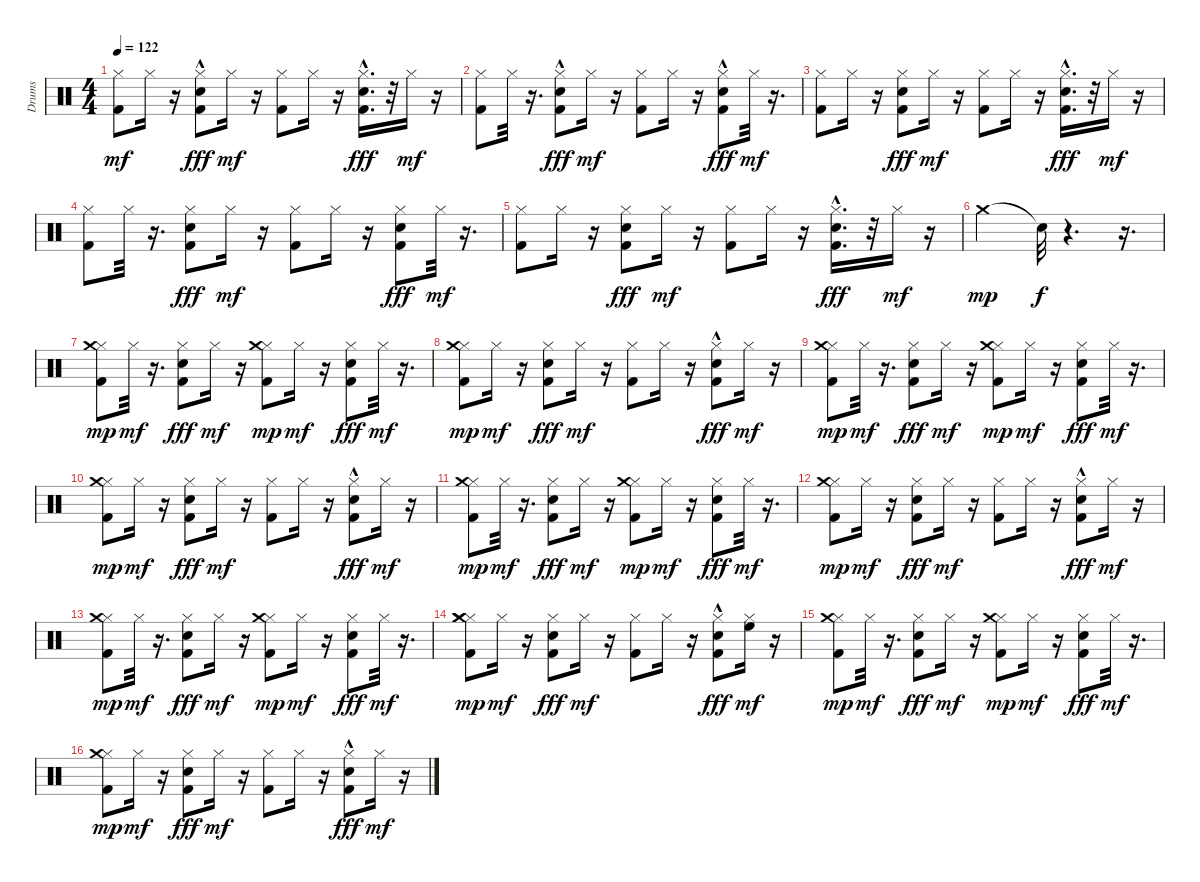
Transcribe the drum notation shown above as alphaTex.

\track ("Drums" "Drums") {instrument percussion}
\staff {score}
\articulation defaults
\ts (4 4)
\tempo 122
\clef neutral
\ks c
("Hi-Hat (closed)" "Kick (hit) 2").8{dy mf} "Hi-Hat (closed)".16 r.16 ("Hi-Hat (closed)" "Electric Snare (hit)"{hac} "Kick (hit) 2").8{dy fff} "Hi-Hat (closed)".16{dy mf} r.16 ("Hi-Hat (closed)" "Kick (hit) 2").8 "Hi-Hat (closed)".16 r.16 ("Hi-Hat (closed)" "Electric Snare (hit)"{hac} "Kick (hit) 2"{hac}).16{d dy fff} r.32 "Hi-Hat (closed)".16{dy mf} r.16 |
("Hi-Hat (closed)" "Kick (hit) 2").8 "Hi-Hat (closed)".32 r.16{d} ("Hi-Hat (closed)" "Electric Snare (hit)"{hac} "Kick (hit) 2").8{dy fff} "Hi-Hat (closed)".16{dy mf} r.16 ("Hi-Hat (closed)" "Kick (hit) 2").8 "Hi-Hat (closed)".16 r.16 ("Hi-Hat (closed)" "Electric Snare (hit)"{hac} "Kick (hit) 2").8{dy fff} "Hi-Hat (closed)".32{dy mf} r.16{d} |
("Hi-Hat (closed)" "Kick (hit) 2").8 "Hi-Hat (closed)".16 r.16 ("Hi-Hat (closed)" "Electric Snare (hit)" "Kick (hit) 2").8{dy fff} "Hi-Hat (closed)".16{dy mf} r.16 ("Hi-Hat (closed)" "Kick (hit) 2").8 "Hi-Hat (closed)".16 r.16 ("Hi-Hat (closed)" "Electric Snare (hit)" "Kick (hit) 2"{hac}).16{d dy fff} r.32 "Hi-Hat (closed)".16{dy mf} r.16 |
("Hi-Hat (closed)" "Kick (hit) 2").8 "Hi-Hat (closed)".32 r.16{d} ("Hi-Hat (closed)" "Electric Snare (hit)" "Kick (hit) 2").8{dy fff} "Hi-Hat (closed)".16{dy mf} r.16 ("Hi-Hat (closed)" "Kick (hit) 2").8 "Hi-Hat (closed)".16 r.16 ("Hi-Hat (closed)" "Electric Snare (hit)" "Kick (hit) 2").8{dy fff} "Hi-Hat (closed)".32{dy mf} r.16{d} |
("Hi-Hat (closed)" "Kick (hit) 2").8 "Hi-Hat (closed)".16 r.16 ("Hi-Hat (closed)" "Electric Snare (hit)" "Kick (hit) 2").8{dy fff} "Hi-Hat (closed)".16{dy mf} r.16 ("Hi-Hat (closed)" "Kick (hit) 2").8 "Hi-Hat (closed)".16 r.16 ("Hi-Hat (closed)" "Electric Snare (hit)" "Kick (hit) 2"{hac}).16{d dy fff} r.32 "Hi-Hat (closed)".16{dy mf} r.16 |
"Crash medium (hit)".2{dy mp} "Snare (hit)"{t}.32{dy f} r.4{d} r.16{d} |
("Hi-Hat (closed)" "Crash medium (hit)" "Kick (hit) 2").8{dy mp} "Hi-Hat (closed)".32{dy mf} r.16{d} ("Hi-Hat (closed)" "Electric Snare (hit)" "Kick (hit) 2").8{dy fff} "Hi-Hat (closed)".16{dy mf} r.16 ("Hi-Hat (closed)" "Crash medium (hit)" "Kick (hit) 2").8{dy mp} "Hi-Hat (closed)".16{dy mf} r.16 ("Hi-Hat (closed)" "Electric Snare (hit)" "Kick (hit) 2").8{dy fff} "Hi-Hat (closed)".32{dy mf} r.16{d} |
("Hi-Hat (closed)" "Crash medium (hit)" "Kick (hit) 2").8{dy mp} "Hi-Hat (closed)".16{dy mf} r.16 ("Hi-Hat (closed)" "Electric Snare (hit)" "Kick (hit) 2").8{dy fff} "Hi-Hat (closed)".16{dy mf} r.16 ("Hi-Hat (closed)" "Kick (hit) 2").8 "Hi-Hat (closed)".16 r.16 ("Hi-Hat (closed)" "Electric Snare (hit)"{hac} "Kick (hit) 2"{hac}).8{dy fff} "Hi-Hat (closed)".16{dy mf} r.16 |
("Hi-Hat (closed)" "Crash medium (hit)" "Kick (hit) 2").8{dy mp} "Hi-Hat (closed)".32{dy mf} r.16{d} ("Hi-Hat (closed)" "Electric Snare (hit)" "Kick (hit) 2").8{dy fff} "Hi-Hat (closed)".16{dy mf} r.16 ("Hi-Hat (closed)" "Crash medium (hit)" "Kick (hit) 2").8{dy mp} "Hi-Hat (closed)".16{dy mf} r.16 ("Hi-Hat (closed)" "Electric Snare (hit)" "Kick (hit) 2").8{dy fff} "Hi-Hat (closed)".32{dy mf} r.16{d} |
("Hi-Hat (closed)" "Crash medium (hit)" "Kick (hit) 2").8{dy mp} "Hi-Hat (closed)".16{dy mf} r.16 ("Hi-Hat (closed)" "Electric Snare (hit)" "Kick (hit) 2").8{dy fff} "Hi-Hat (closed)".16{dy mf} r.16 ("Hi-Hat (closed)" "Kick (hit) 2").8 "Hi-Hat (closed)".16 r.16 ("Hi-Hat (closed)" "Electric Snare (hit)" "Kick (hit) 2"{hac}).8{dy fff} "Hi-Hat (closed)".16{dy mf} r.16 |
("Hi-Hat (closed)" "Crash medium (hit)" "Kick (hit) 2").8{dy mp} "Hi-Hat (closed)".32{dy mf} r.16{d} ("Hi-Hat (closed)" "Electric Snare (hit)" "Kick (hit) 2").8{dy fff} "Hi-Hat (closed)".16{dy mf} r.16 ("Hi-Hat (closed)" "Crash medium (hit)" "Kick (hit) 2").8{dy mp} "Hi-Hat (closed)".16{dy mf} r.16 ("Hi-Hat (closed)" "Electric Snare (hit)" "Kick (hit) 2").8{dy fff} "Hi-Hat (closed)".32{dy mf} r.16{d} |
("Hi-Hat (closed)" "Crash medium (hit)" "Kick (hit) 2").8{dy mp} "Hi-Hat (closed)".16{dy mf} r.16 ("Hi-Hat (closed)" "Electric Snare (hit)" "Kick (hit) 2").8{dy fff} "Hi-Hat (closed)".16{dy mf} r.16 ("Hi-Hat (closed)" "Kick (hit) 2").8 "Hi-Hat (closed)".16 r.16 ("Hi-Hat (closed)" "Electric Snare (hit)" "Kick (hit) 2"{hac}).8{dy fff} "Hi-Hat (closed)".16{dy mf} r.16 |
("Hi-Hat (closed)" "Crash medium (hit)" "Kick (hit) 2").8{dy mp} "Hi-Hat (closed)".32{dy mf} r.16{d} ("Hi-Hat (closed)" "Electric Snare (hit)" "Kick (hit) 2").8{dy fff} "Hi-Hat (closed)".16{dy mf} r.16 ("Hi-Hat (closed)" "Crash medium (hit)" "Kick (hit) 2").8{dy mp} "Hi-Hat (closed)".16{dy mf} r.16 ("Hi-Hat (closed)" "Electric Snare (hit)" "Kick (hit) 2").8{dy fff} "Hi-Hat (closed)".32{dy mf} r.16{d} |
("Hi-Hat (closed)" "Crash medium (hit)" "Crash medium (hit)" "Kick (hit) 2").8{dy mp} "Hi-Hat (closed)".16{dy mf} r.16 ("Hi-Hat (closed)" "Electric Snare (hit)" "Kick (hit) 2").8{dy fff} "Hi-Hat (closed)".16{dy mf} r.16 ("Hi-Hat (closed)" "Kick (hit) 2").8 "Hi-Hat (closed)".16 r.16 ("Hi-Hat (closed)" "Electric Snare (hit)" "Kick (hit) 2"{hac}).8{dy fff} ("High Floor Tom (hit)" "Hi-Hat (closed)").16{dy mf} r.16 |
("Hi-Hat (closed)" "Crash medium (hit)" "Kick (hit) 2").8{dy mp} "Hi-Hat (closed)".32{dy mf} r.16{d} ("Hi-Hat (closed)" "Electric Snare (hit)" "Kick (hit) 2").8{dy fff} "Hi-Hat (closed)".16{dy mf} r.16 ("Hi-Hat (closed)" "Crash medium (hit)" "Kick (hit) 2").8{dy mp} "Hi-Hat (closed)".16{dy mf} r.16 ("Hi-Hat (closed)" "Electric Snare (hit)" "Kick (hit) 2").8{dy fff} "Hi-Hat (closed)".32{dy mf} r.16{d} |
("Hi-Hat (closed)" "Crash medium (hit)" "Kick (hit) 2").8{dy mp} "Hi-Hat (closed)".16{dy mf} r.16 ("Hi-Hat (closed)" "Electric Snare (hit)" "Kick (hit) 2").8{dy fff} "Hi-Hat (closed)".16{dy mf} r.16 ("Hi-Hat (closed)" "Kick (hit) 2").8 "Hi-Hat (closed)".16 r.16 ("Hi-Hat (closed)" "Electric Snare (hit)"{hac} "Kick (hit) 2"{hac}).8{dy fff} "Hi-Hat (closed)".16{dy mf} r.16
